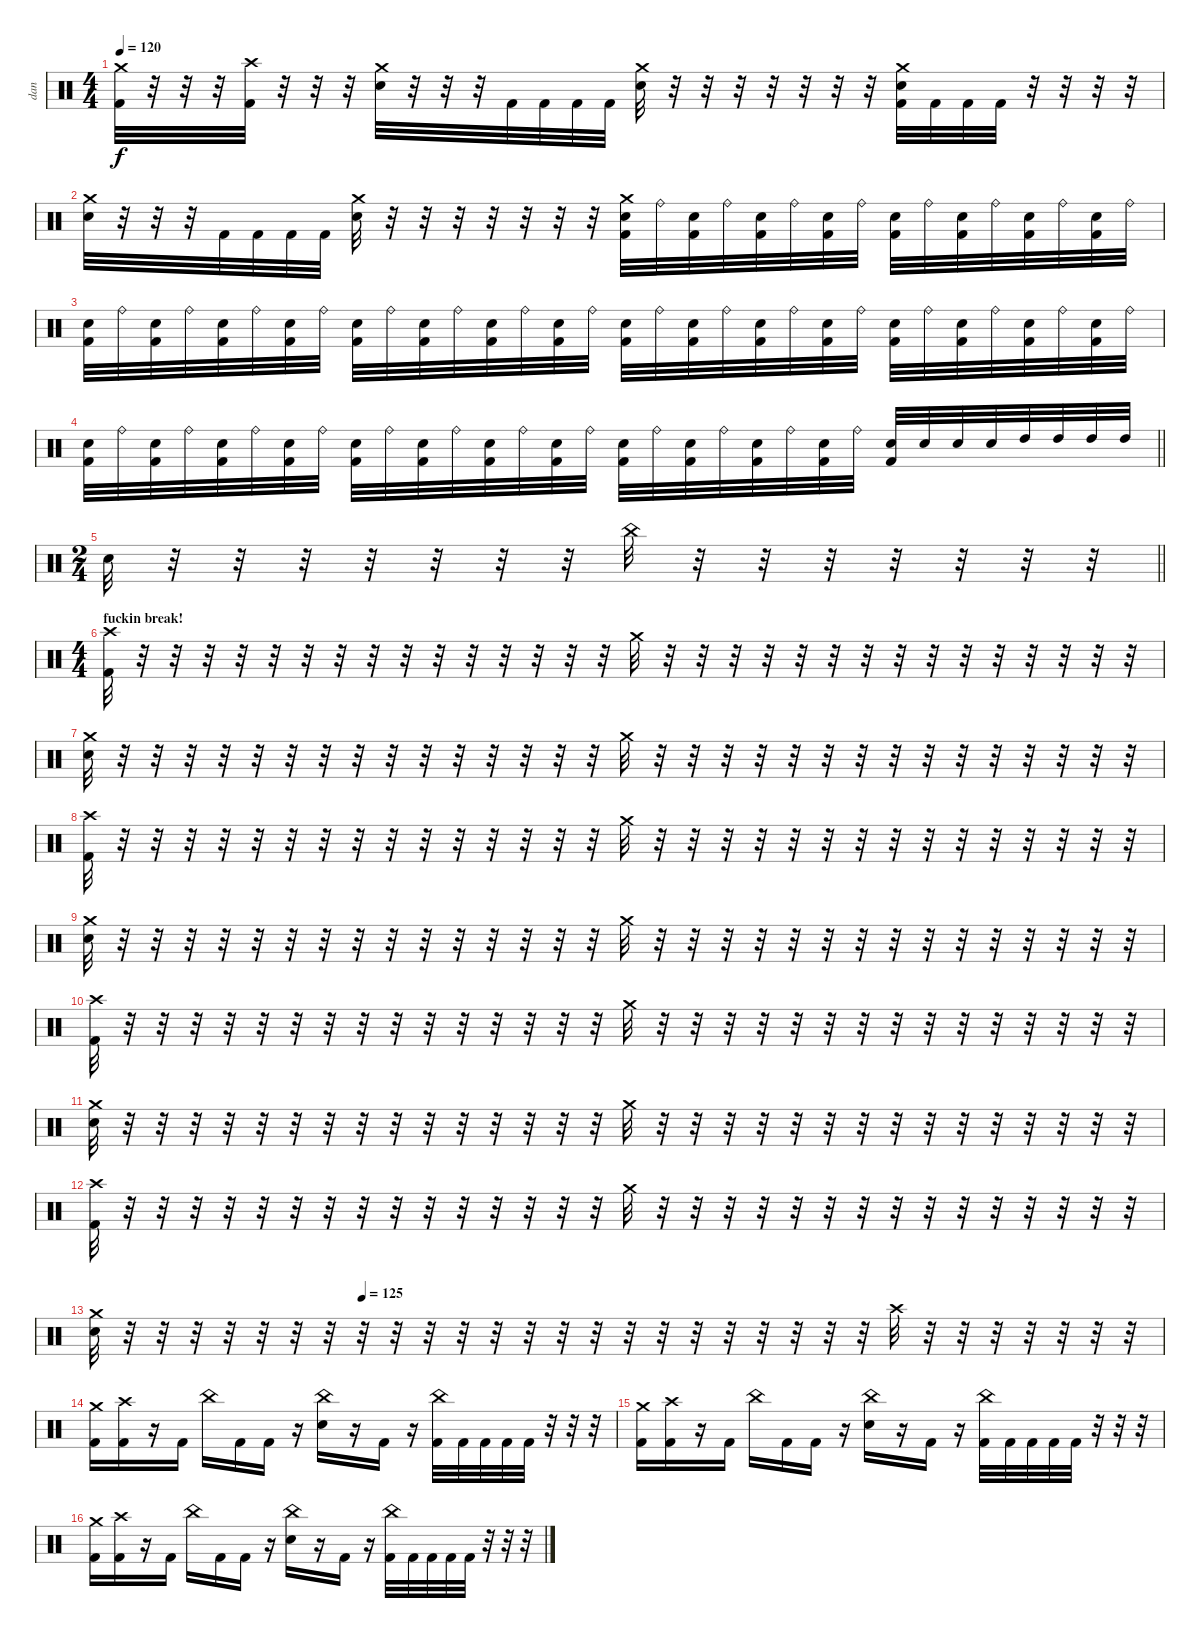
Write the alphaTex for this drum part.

\track ("dan" "dan") {instrument percussion}
\staff {score}
\articulation defaults
\ts (4 4)
\tempo 120
\clef neutral
\ks c
("Crash medium (hit)" "Kick (hit) 2").32{dy f} r.32 r.32 r.32 ("Crash high (hit)" "Kick (hit) 2").32 r.32 r.32 r.32 ("Crash medium (hit)" "Electric Snare (hit)").32 r.32 r.32 r.32 "Kick (hit) 2".32 "Kick (hit) 2".32 "Kick (hit) 2".32 "Kick (hit) 2".32 ("Crash medium (hit)" "Electric Snare (hit)").32 r.32 r.32 r.32 r.32 r.32 r.32 r.32 ("Crash medium (hit)" "Electric Snare (hit)" "Kick (hit) 2").32 "Kick (hit) 2".32 "Kick (hit) 2".32 "Kick (hit) 2".32 r.32 r.32 r.32 r.32 |
("Crash medium (hit)" "Electric Snare (hit)").32 r.32 r.32 r.32 "Kick (hit) 2".32 "Kick (hit) 2".32 "Kick (hit) 2".32 "Kick (hit) 2".32 ("Crash medium (hit)" "Electric Snare (hit)").32 r.32 r.32 r.32 r.32 r.32 r.32 r.32 ("Crash medium (hit)" "Electric Snare (hit)" "Kick (hit) 2").32 "Ride (bell)".32 ("Electric Snare (hit)" "Kick (hit) 2").32 "Ride (bell)".32 ("Electric Snare (hit)" "Kick (hit) 2").32 "Ride (bell)".32 ("Electric Snare (hit)" "Kick (hit) 2").32 "Ride (bell)".32 ("Electric Snare (hit)" "Kick (hit) 2").32 "Ride (bell)".32 ("Electric Snare (hit)" "Kick (hit) 2").32 "Ride (bell)".32 ("Electric Snare (hit)" "Kick (hit) 2").32 "Ride (bell)".32 ("Electric Snare (hit)" "Kick (hit) 2").32 "Ride (bell)".32 |
("Electric Snare (hit)" "Kick (hit) 2").32 "Ride (bell)".32 ("Electric Snare (hit)" "Kick (hit) 2").32 "Ride (bell)".32 ("Electric Snare (hit)" "Kick (hit) 2").32 "Ride (bell)".32 ("Electric Snare (hit)" "Kick (hit) 2").32 "Ride (bell)".32 ("Electric Snare (hit)" "Kick (hit) 2").32 "Ride (bell)".32 ("Electric Snare (hit)" "Kick (hit) 2").32 "Ride (bell)".32 ("Electric Snare (hit)" "Kick (hit) 2").32 "Ride (bell)".32 ("Electric Snare (hit)" "Kick (hit) 2").32 "Ride (bell)".32 ("Electric Snare (hit)" "Kick (hit) 2").32 "Ride (bell)".32 ("Electric Snare (hit)" "Kick (hit) 2").32 "Ride (bell)".32 ("Electric Snare (hit)" "Kick (hit) 2").32 "Ride (bell)".32 ("Electric Snare (hit)" "Kick (hit) 2").32 "Ride (bell)".32 ("Electric Snare (hit)" "Kick (hit) 2").32 "Ride (bell)".32 ("Electric Snare (hit)" "Kick (hit) 2").32 "Ride (bell)".32 ("Electric Snare (hit)" "Kick (hit) 2").32 "Ride (bell)".32 ("Electric Snare (hit)" "Kick (hit) 2").32 "Ride (bell)".32 |
\barLineRight lightlight
("Electric Snare (hit)" "Kick (hit) 2").32 "Ride (bell)".32 ("Electric Snare (hit)" "Kick (hit) 2").32 "Ride (bell)".32 ("Electric Snare (hit)" "Kick (hit) 2").32 "Ride (bell)".32 ("Electric Snare (hit)" "Kick (hit) 2").32 "Ride (bell)".32 ("Electric Snare (hit)" "Kick (hit) 2").32 "Ride (bell)".32 ("Electric Snare (hit)" "Kick (hit) 2").32 "Ride (bell)".32 ("Electric Snare (hit)" "Kick (hit) 2").32 "Ride (bell)".32 ("Electric Snare (hit)" "Kick (hit) 2").32 "Ride (bell)".32 ("Electric Snare (hit)" "Kick (hit) 2").32 "Ride (bell)".32 ("Electric Snare (hit)" "Kick (hit) 2").32 "Ride (bell)".32 ("Electric Snare (hit)" "Kick (hit) 2").32 "Ride (bell)".32 ("Electric Snare (hit)" "Kick (hit) 2").32 "Ride (bell)".32 ("Electric Snare (hit)" "Kick (hit) 2").32 "Electric Snare (hit)".32 "Electric Snare (hit)".32 "Electric Snare (hit)".32 "High Tom (hit)".32 "High Tom (hit)".32 "High Tom (hit)".32 "High Tom (hit)".32 |
\ts (2 4)
\barLineRight lightlight "Electric Snare (hit)".32
r.32 r.32 r.32 r.32 r.32 r.32 r.32 "China (hit)".32 r.32 r.32 r.32 r.32 r.32 r.32 r.32 |
\ts (4 4)
\section ("" "fuckin break!")
("Crash high (hit)" "Kick (hit) 2").32 r.32 r.32 r.32 r.32 r.32 r.32 r.32 r.32 r.32 r.32 r.32 r.32 r.32 r.32 r.32 "Crash medium (hit)".32 r.32 r.32 r.32 r.32 r.32 r.32 r.32 r.32 r.32 r.32 r.32 r.32 r.32 r.32 r.32 |
("Crash medium (hit)" "Electric Snare (hit)").32 r.32 r.32 r.32 r.32 r.32 r.32 r.32 r.32 r.32 r.32 r.32 r.32 r.32 r.32 r.32 "Crash medium (hit)".32 r.32 r.32 r.32 r.32 r.32 r.32 r.32 r.32 r.32 r.32 r.32 r.32 r.32 r.32 r.32 |
("Crash high (hit)" "Kick (hit) 2").32 r.32 r.32 r.32 r.32 r.32 r.32 r.32 r.32 r.32 r.32 r.32 r.32 r.32 r.32 r.32 "Crash medium (hit)".32 r.32 r.32 r.32 r.32 r.32 r.32 r.32 r.32 r.32 r.32 r.32 r.32 r.32 r.32 r.32 |
("Crash medium (hit)" "Electric Snare (hit)").32 r.32 r.32 r.32 r.32 r.32 r.32 r.32 r.32 r.32 r.32 r.32 r.32 r.32 r.32 r.32 "Crash medium (hit)".32 r.32 r.32 r.32 r.32 r.32 r.32 r.32 r.32 r.32 r.32 r.32 r.32 r.32 r.32 r.32 |
("Crash high (hit)" "Kick (hit) 2").32 r.32 r.32 r.32 r.32 r.32 r.32 r.32 r.32 r.32 r.32 r.32 r.32 r.32 r.32 r.32 "Crash medium (hit)".32 r.32 r.32 r.32 r.32 r.32 r.32 r.32 r.32 r.32 r.32 r.32 r.32 r.32 r.32 r.32 |
("Crash medium (hit)" "Electric Snare (hit)").32 r.32 r.32 r.32 r.32 r.32 r.32 r.32 r.32 r.32 r.32 r.32 r.32 r.32 r.32 r.32 "Crash medium (hit)".32 r.32 r.32 r.32 r.32 r.32 r.32 r.32 r.32 r.32 r.32 r.32 r.32 r.32 r.32 r.32 |
("Crash high (hit)" "Kick (hit) 2").32 r.32 r.32 r.32 r.32 r.32 r.32 r.32 r.32 r.32 r.32 r.32 r.32 r.32 r.32 r.32 "Crash medium (hit)".32 r.32 r.32 r.32 r.32 r.32 r.32 r.32 r.32 r.32 r.32 r.32 r.32 r.32 r.32 r.32 |
\tempo (125 0.25)
("Crash medium (hit)" "Electric Snare (hit)").32 r.32 r.32 r.32 r.32 r.32 r.32 r.32 r.32 r.32 r.32 r.32 r.32 r.32 r.32 r.32 r.32 r.32 r.32 r.32 r.32 r.32 r.32 r.32 "Crash high (hit)".32 r.32 r.32 r.32 r.32 r.32 r.32 r.32 |
("Crash medium (hit)" "Kick (hit) 2").16 ("Crash high (hit)" "Kick (hit) 2").16 r.16 "Kick (hit) 2".16 "China (hit)".16 "Kick (hit) 2".16 "Kick (hit) 2".16 r.16 ("China (hit)" "Electric Snare (hit)").16 r.16 "Kick (hit) 2".16 r.16 ("China (hit)" "Kick (hit) 2").32 "Kick (hit) 2".32 "Kick (hit) 2".32 "Kick (hit) 2".32 "Kick (hit) 2".32 r.32 r.32 r.32 |
("Crash medium (hit)" "Kick (hit) 2").16 ("Crash high (hit)" "Kick (hit) 2").16 r.16 "Kick (hit) 2".16 "China (hit)".16 "Kick (hit) 2".16 "Kick (hit) 2".16 r.16 ("China (hit)" "Electric Snare (hit)").16 r.16 "Kick (hit) 2".16 r.16 ("China (hit)" "Kick (hit) 2").32 "Kick (hit) 2".32 "Kick (hit) 2".32 "Kick (hit) 2".32 "Kick (hit) 2".32 r.32 r.32 r.32 |
("Crash medium (hit)" "Kick (hit) 2").16 ("Crash high (hit)" "Kick (hit) 2").16 r.16 "Kick (hit) 2".16 "China (hit)".16 "Kick (hit) 2".16 "Kick (hit) 2".16 r.16 ("China (hit)" "Electric Snare (hit)").16 r.16 "Kick (hit) 2".16 r.16 ("China (hit)" "Kick (hit) 2").32 "Kick (hit) 2".32 "Kick (hit) 2".32 "Kick (hit) 2".32 "Kick (hit) 2".32 r.32 r.32 r.32
